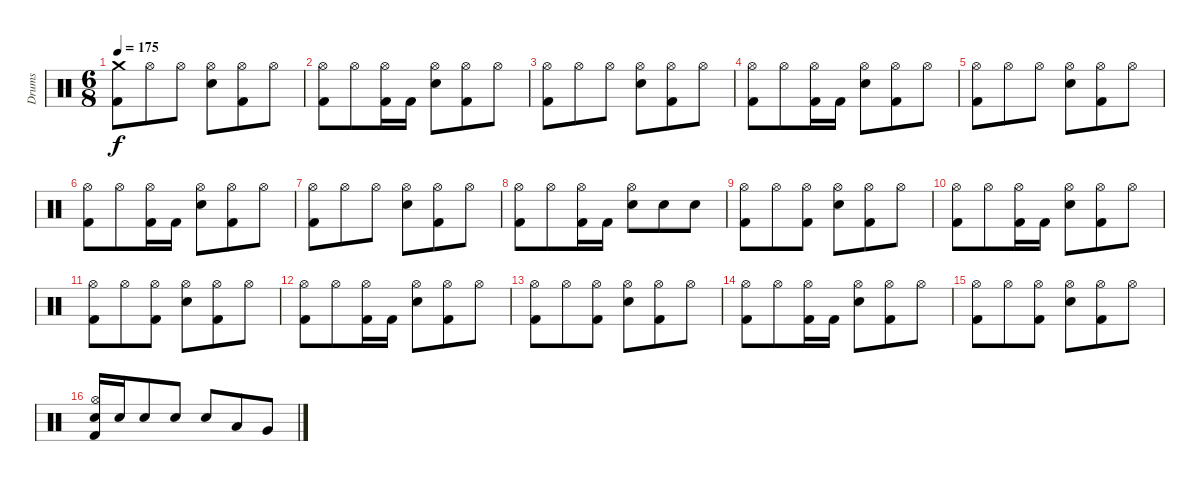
\track ("Drums" "Drums") {instrument percussion}
\staff {score}
\articulation defaults
\ts (6 8)
\tempo 175
\clef neutral
\ks c
("Crash medium (hit)" "Kick (hit) 2").8{dy f} "Hi-Hat (open)".8 "Hi-Hat (open)".8 ("Hi-Hat (open)" "Electric Snare (hit)").8 ("Hi-Hat (open)" "Kick (hit) 2").8 "Hi-Hat (open)".8 |
("Hi-Hat (open)" "Kick (hit) 2").8 "Hi-Hat (open)".8 ("Hi-Hat (open)" "Kick (hit) 2").16 "Kick (hit) 2".16 ("Hi-Hat (open)" "Electric Snare (hit)").8 ("Hi-Hat (open)" "Kick (hit) 2").8 "Hi-Hat (open)".8 |
("Hi-Hat (open)" "Kick (hit) 2").8 "Hi-Hat (open)".8 "Hi-Hat (open)".8 ("Hi-Hat (open)" "Electric Snare (hit)").8 ("Hi-Hat (open)" "Kick (hit) 2").8 "Hi-Hat (open)".8 |
("Hi-Hat (open)" "Kick (hit) 2").8 "Hi-Hat (open)".8 ("Hi-Hat (open)" "Kick (hit) 2").16 "Kick (hit) 2".16 ("Hi-Hat (open)" "Electric Snare (hit)").8 ("Hi-Hat (open)" "Kick (hit) 2").8 "Hi-Hat (open)".8 |
("Hi-Hat (open)" "Kick (hit) 2").8 "Hi-Hat (open)".8 "Hi-Hat (open)".8 ("Hi-Hat (open)" "Electric Snare (hit)").8 ("Hi-Hat (open)" "Kick (hit) 2").8 "Hi-Hat (open)".8 |
("Hi-Hat (open)" "Kick (hit) 2").8 "Hi-Hat (open)".8 ("Hi-Hat (open)" "Kick (hit) 2").16 "Kick (hit) 2".16 ("Hi-Hat (open)" "Electric Snare (hit)").8 ("Hi-Hat (open)" "Kick (hit) 2").8 "Hi-Hat (open)".8 |
("Hi-Hat (open)" "Kick (hit) 2").8 "Hi-Hat (open)".8 "Hi-Hat (open)".8 ("Hi-Hat (open)" "Electric Snare (hit)").8 ("Hi-Hat (open)" "Kick (hit) 2").8 "Hi-Hat (open)".8 |
("Hi-Hat (open)" "Kick (hit) 2").8 "Hi-Hat (open)".8 ("Hi-Hat (open)" "Kick (hit) 2").16 "Kick (hit) 2".16 ("Hi-Hat (open)" "Electric Snare (hit)").8 "Electric Snare (hit)".8 "Electric Snare (hit)".8 |
("Hi-Hat (open)" "Kick (hit) 2").8 "Hi-Hat (open)".8 ("Hi-Hat (open)" "Kick (hit) 2").8 ("Hi-Hat (open)" "Electric Snare (hit)").8 ("Hi-Hat (open)" "Kick (hit) 2").8 "Hi-Hat (open)".8 |
("Hi-Hat (open)" "Kick (hit) 2").8 "Hi-Hat (open)".8 ("Hi-Hat (open)" "Kick (hit) 2").16 "Kick (hit) 2".16 ("Hi-Hat (open)" "Electric Snare (hit)").8 ("Hi-Hat (open)" "Kick (hit) 2").8 "Hi-Hat (open)".8 |
("Hi-Hat (open)" "Kick (hit) 2").8 "Hi-Hat (open)".8 ("Hi-Hat (open)" "Kick (hit) 2").8 ("Hi-Hat (open)" "Electric Snare (hit)").8 ("Hi-Hat (open)" "Kick (hit) 2").8 "Hi-Hat (open)".8 |
("Hi-Hat (open)" "Kick (hit) 2").8 "Hi-Hat (open)".8 ("Hi-Hat (open)" "Kick (hit) 2").16 "Kick (hit) 2".16 ("Hi-Hat (open)" "Electric Snare (hit)").8 ("Hi-Hat (open)" "Kick (hit) 2").8 "Hi-Hat (open)".8 |
("Hi-Hat (open)" "Kick (hit) 2").8 "Hi-Hat (open)".8 ("Hi-Hat (open)" "Kick (hit) 2").8 ("Hi-Hat (open)" "Electric Snare (hit)").8 ("Hi-Hat (open)" "Kick (hit) 2").8 "Hi-Hat (open)".8 |
("Hi-Hat (open)" "Kick (hit) 2").8 "Hi-Hat (open)".8 ("Hi-Hat (open)" "Kick (hit) 2").16 "Kick (hit) 2".16 ("Hi-Hat (open)" "Electric Snare (hit)").8 ("Hi-Hat (open)" "Kick (hit) 2").8 "Hi-Hat (open)".8 |
("Hi-Hat (open)" "Kick (hit) 2").8 "Hi-Hat (open)".8 ("Hi-Hat (open)" "Kick (hit) 2").8 ("Hi-Hat (open)" "Electric Snare (hit)").8 ("Hi-Hat (open)" "Kick (hit) 2").8 "Hi-Hat (open)".8 |
("Hi-Hat (open)" "Electric Snare (hit)" "Kick (hit) 2").16 "Electric Snare (hit)".16 "Electric Snare (hit)".8 "Electric Snare (hit)".8 "Electric Snare (hit)".8 "Low Tom (hit)".8 "Very Low Tom (hit)".8
